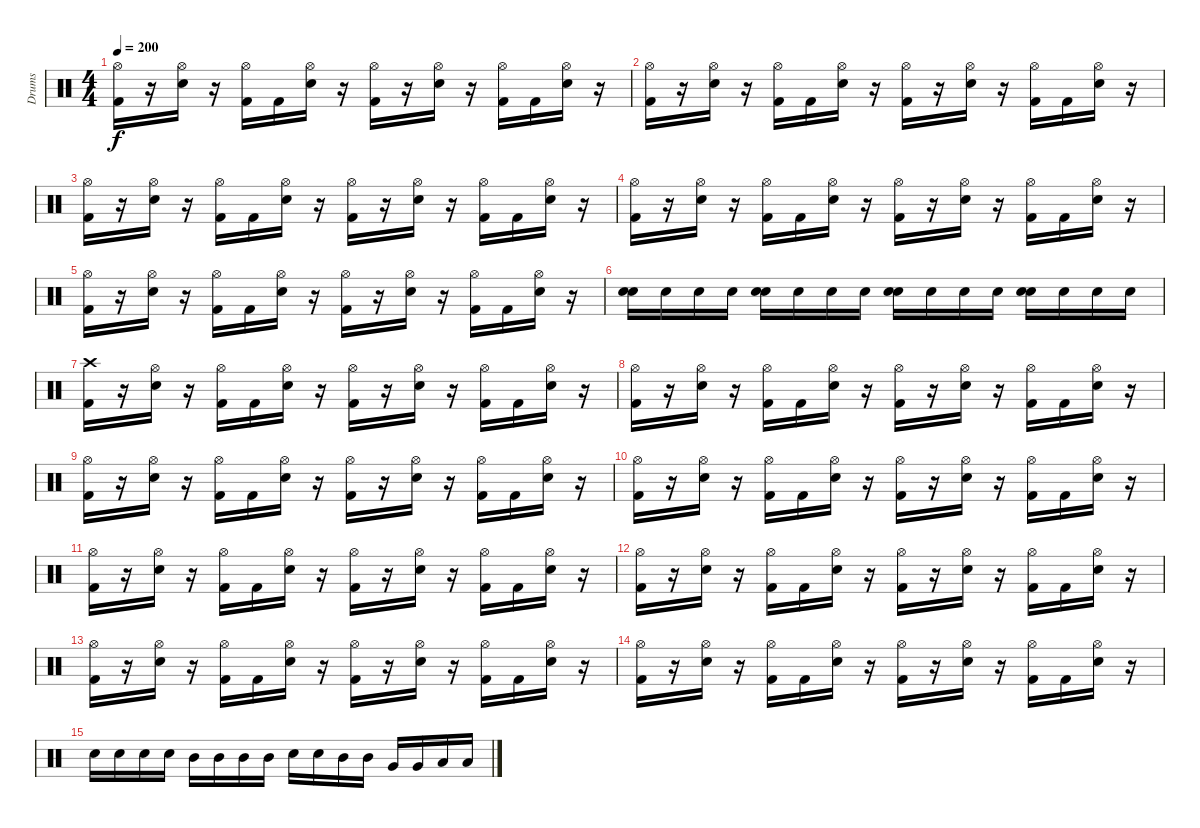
\track ("Drums" "Drums") {instrument percussion}
\staff {score}
\articulation defaults
\ts (4 4)
\tempo 200
\clef neutral
\ks c
("Hi-Hat (open)" "Kick (hit) 2").16{dy f} r.16 ("Hi-Hat (open)" "Electric Snare (hit)").16 r.16 ("Hi-Hat (open)" "Kick (hit) 2").16 "Kick (hit) 2".16 ("Hi-Hat (open)" "Electric Snare (hit)").16 r.16 ("Hi-Hat (open)" "Kick (hit) 2").16 r.16 ("Hi-Hat (open)" "Electric Snare (hit)").16 r.16 ("Hi-Hat (open)" "Kick (hit) 2").16 "Kick (hit) 2".16 ("Hi-Hat (open)" "Electric Snare (hit)").16 r.16 |
("Hi-Hat (open)" "Kick (hit) 2").16 r.16 ("Hi-Hat (open)" "Electric Snare (hit)").16 r.16 ("Hi-Hat (open)" "Kick (hit) 2").16 "Kick (hit) 2".16 ("Hi-Hat (open)" "Electric Snare (hit)").16 r.16 ("Hi-Hat (open)" "Kick (hit) 2").16 r.16 ("Hi-Hat (open)" "Electric Snare (hit)").16 r.16 ("Hi-Hat (open)" "Kick (hit) 2").16 "Kick (hit) 2".16 ("Hi-Hat (open)" "Electric Snare (hit)").16 r.16 |
("Hi-Hat (open)" "Kick (hit) 2").16 r.16 ("Hi-Hat (open)" "Electric Snare (hit)").16 r.16 ("Hi-Hat (open)" "Kick (hit) 2").16 "Kick (hit) 2".16 ("Hi-Hat (open)" "Electric Snare (hit)").16 r.16 ("Hi-Hat (open)" "Kick (hit) 2").16 r.16 ("Hi-Hat (open)" "Electric Snare (hit)").16 r.16 ("Hi-Hat (open)" "Kick (hit) 2").16 "Kick (hit) 2".16 ("Hi-Hat (open)" "Electric Snare (hit)").16 r.16 |
("Hi-Hat (open)" "Kick (hit) 2").16 r.16 ("Hi-Hat (open)" "Electric Snare (hit)").16 r.16 ("Hi-Hat (open)" "Kick (hit) 2").16 "Kick (hit) 2".16 ("Hi-Hat (open)" "Electric Snare (hit)").16 r.16 ("Hi-Hat (open)" "Kick (hit) 2").16 r.16 ("Hi-Hat (open)" "Electric Snare (hit)").16 r.16 ("Hi-Hat (open)" "Kick (hit) 2").16 "Kick (hit) 2".16 ("Hi-Hat (open)" "Electric Snare (hit)").16 r.16 |
("Hi-Hat (open)" "Kick (hit) 2").16 r.16 ("Hi-Hat (open)" "Electric Snare (hit)").16 r.16 ("Hi-Hat (open)" "Kick (hit) 2").16 "Kick (hit) 2".16 ("Hi-Hat (open)" "Electric Snare (hit)").16 r.16 ("Hi-Hat (open)" "Kick (hit) 2").16 r.16 ("Hi-Hat (open)" "Electric Snare (hit)").16 r.16 ("Hi-Hat (open)" "Kick (hit) 2").16 "Kick (hit) 2".16 ("Hi-Hat (open)" "Electric Snare (hit)").16 r.16 |
("Electric Snare (hit)" "Electric Snare (hit)").16 "Electric Snare (hit)".16 "Electric Snare (hit)".16 "Electric Snare (hit)".16 ("Electric Snare (hit)" "Electric Snare (hit)").16 "Electric Snare (hit)".16 "Electric Snare (hit)".16 "Electric Snare (hit)".16 ("Electric Snare (hit)" "Electric Snare (hit)").16 "Electric Snare (hit)".16 "Electric Snare (hit)".16 "Electric Snare (hit)".16 ("Electric Snare (hit)" "Electric Snare (hit)").16 "Electric Snare (hit)".16 "Electric Snare (hit)".16 "Electric Snare (hit)".16 |
("Crash high (hit)" "Kick (hit) 2").16 r.16 ("Hi-Hat (open)" "Electric Snare (hit)").16 r.16 ("Hi-Hat (open)" "Kick (hit) 2").16 "Kick (hit) 2".16 ("Hi-Hat (open)" "Electric Snare (hit)").16 r.16 ("Hi-Hat (open)" "Kick (hit) 2").16 r.16 ("Hi-Hat (open)" "Electric Snare (hit)").16 r.16 ("Hi-Hat (open)" "Kick (hit) 2").16 "Kick (hit) 2".16 ("Hi-Hat (open)" "Electric Snare (hit)").16 r.16 |
("Hi-Hat (open)" "Kick (hit) 2").16 r.16 ("Hi-Hat (open)" "Electric Snare (hit)").16 r.16 ("Hi-Hat (open)" "Kick (hit) 2").16 "Kick (hit) 2".16 ("Hi-Hat (open)" "Electric Snare (hit)").16 r.16 ("Hi-Hat (open)" "Kick (hit) 2").16 r.16 ("Hi-Hat (open)" "Electric Snare (hit)").16 r.16 ("Hi-Hat (open)" "Kick (hit) 2").16 "Kick (hit) 2".16 ("Hi-Hat (open)" "Electric Snare (hit)").16 r.16 |
("Hi-Hat (open)" "Kick (hit) 2").16 r.16 ("Hi-Hat (open)" "Electric Snare (hit)").16 r.16 ("Hi-Hat (open)" "Kick (hit) 2").16 "Kick (hit) 2".16 ("Hi-Hat (open)" "Electric Snare (hit)").16 r.16 ("Hi-Hat (open)" "Kick (hit) 2").16 r.16 ("Hi-Hat (open)" "Electric Snare (hit)").16 r.16 ("Hi-Hat (open)" "Kick (hit) 2").16 "Kick (hit) 2".16 ("Hi-Hat (open)" "Electric Snare (hit)").16 r.16 |
("Hi-Hat (open)" "Kick (hit) 2").16 r.16 ("Hi-Hat (open)" "Electric Snare (hit)").16 r.16 ("Hi-Hat (open)" "Kick (hit) 2").16 "Kick (hit) 2".16 ("Hi-Hat (open)" "Electric Snare (hit)").16 r.16 ("Hi-Hat (open)" "Kick (hit) 2").16 r.16 ("Hi-Hat (open)" "Electric Snare (hit)").16 r.16 ("Hi-Hat (open)" "Kick (hit) 2").16 "Kick (hit) 2".16 ("Hi-Hat (open)" "Electric Snare (hit)").16 r.16 |
("Hi-Hat (open)" "Kick (hit) 2").16 r.16 ("Hi-Hat (open)" "Electric Snare (hit)").16 r.16 ("Hi-Hat (open)" "Kick (hit) 2").16 "Kick (hit) 2".16 ("Hi-Hat (open)" "Electric Snare (hit)").16 r.16 ("Hi-Hat (open)" "Kick (hit) 2").16 r.16 ("Hi-Hat (open)" "Electric Snare (hit)").16 r.16 ("Hi-Hat (open)" "Kick (hit) 2").16 "Kick (hit) 2".16 ("Hi-Hat (open)" "Electric Snare (hit)").16 r.16 |
("Hi-Hat (open)" "Kick (hit) 2").16 r.16 ("Hi-Hat (open)" "Electric Snare (hit)").16 r.16 ("Hi-Hat (open)" "Kick (hit) 2").16 "Kick (hit) 2".16 ("Hi-Hat (open)" "Electric Snare (hit)").16 r.16 ("Hi-Hat (open)" "Kick (hit) 2").16 r.16 ("Hi-Hat (open)" "Electric Snare (hit)").16 r.16 ("Hi-Hat (open)" "Kick (hit) 2").16 "Kick (hit) 2".16 ("Hi-Hat (open)" "Electric Snare (hit)").16 r.16 |
("Hi-Hat (open)" "Kick (hit) 2").16 r.16 ("Hi-Hat (open)" "Electric Snare (hit)").16 r.16 ("Hi-Hat (open)" "Kick (hit) 2").16 "Kick (hit) 2".16 ("Hi-Hat (open)" "Electric Snare (hit)").16 r.16 ("Hi-Hat (open)" "Kick (hit) 2").16 r.16 ("Hi-Hat (open)" "Electric Snare (hit)").16 r.16 ("Hi-Hat (open)" "Kick (hit) 2").16 "Kick (hit) 2".16 ("Hi-Hat (open)" "Electric Snare (hit)").16 r.16 |
("Hi-Hat (open)" "Kick (hit) 2").16 r.16 ("Hi-Hat (open)" "Electric Snare (hit)").16 r.16 ("Hi-Hat (open)" "Kick (hit) 2").16 "Kick (hit) 2".16 ("Hi-Hat (open)" "Electric Snare (hit)").16 r.16 ("Hi-Hat (open)" "Kick (hit) 2").16 r.16 ("Hi-Hat (open)" "Electric Snare (hit)").16 r.16 ("Hi-Hat (open)" "Kick (hit) 2").16 "Kick (hit) 2".16 ("Hi-Hat (open)" "Electric Snare (hit)").16 r.16 |
"Electric Snare (hit)".16 "Electric Snare (hit)".16 "Electric Snare (hit)".16 "Electric Snare (hit)".16 "Mid Tom (hit)".16 "Mid Tom (hit)".16 "Mid Tom (hit)".16 "Mid Tom (hit)".16 "Electric Snare (hit)".16 "Electric Snare (hit)".16 "Mid Tom (hit)".16 "Mid Tom (hit)".16 "Very Low Tom (hit)".16 "Very Low Tom (hit)".16 "Low Floor Tom (hit)".16 "Low Floor Tom (hit)".16
